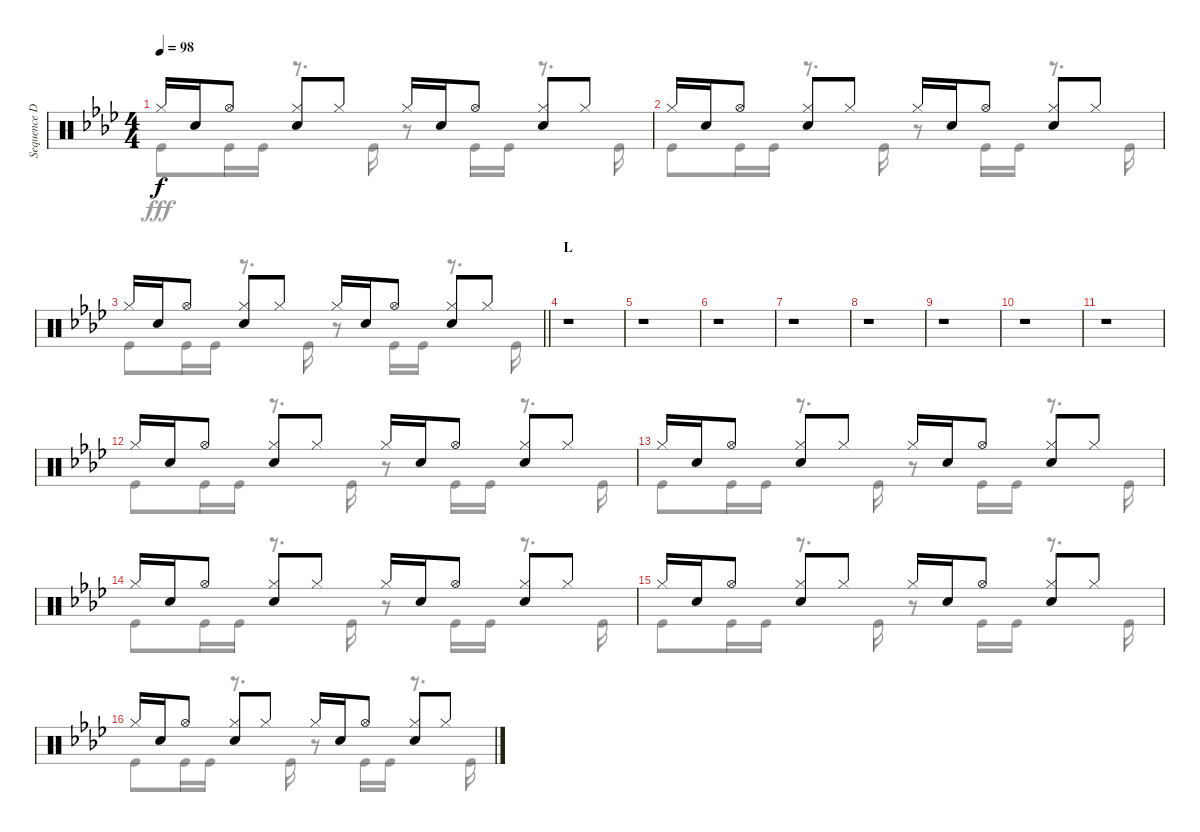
\track ("Sequence Drums II" "Sequence D") {instrument percussion}
\staff {score}
\articulation defaults
\voice
\ts (4 4)
\tempo 98
\clef neutral
\ks ab "Hi-Hat (closed)".16{dy f} "Snare (hit) 2".16 "Hi-Hat (open)".8
("Hi-Hat (closed)" "Snare (hit) 2").8 "Hi-Hat (closed)".8 "Hi-Hat (closed)".16 "Snare (hit) 2".16 "Hi-Hat (open)".8 ("Hi-Hat (closed)" "Snare (hit) 2").8 "Hi-Hat (closed)".8 |
"Hi-Hat (closed)".16 "Snare (hit) 2".16 "Hi-Hat (open)".8 ("Hi-Hat (closed)" "Snare (hit) 2").8 "Hi-Hat (closed)".8 "Hi-Hat (closed)".16 "Snare (hit) 2".16 "Hi-Hat (open)".8 ("Hi-Hat (closed)" "Snare (hit) 2").8 "Hi-Hat (closed)".8 |
\barLineRight lightlight "Hi-Hat (closed)".16 "Snare (hit) 2".16 "Hi-Hat (open)".8
("Hi-Hat (closed)" "Snare (hit) 2").8 "Hi-Hat (closed)".8 "Hi-Hat (closed)".16 "Snare (hit) 2".16 "Hi-Hat (open)".8 ("Hi-Hat (closed)" "Snare (hit) 2").8 "Hi-Hat (closed)".8 |
\section ("" "L")
r.1 |
r.1 |
r.1 |
r.1 |
r.1 |
r.1 |
r.1 |
r.1 |
"Hi-Hat (closed)".16 "Snare (hit) 2".16 "Hi-Hat (open)".8 ("Hi-Hat (closed)" "Snare (hit) 2").8 "Hi-Hat (closed)".8 "Hi-Hat (closed)".16 "Snare (hit) 2".16 "Hi-Hat (open)".8 ("Hi-Hat (closed)" "Snare (hit) 2").8 "Hi-Hat (closed)".8 |
"Hi-Hat (closed)".16 "Snare (hit) 2".16 "Hi-Hat (open)".8 ("Hi-Hat (closed)" "Snare (hit) 2").8 "Hi-Hat (closed)".8 "Hi-Hat (closed)".16 "Snare (hit) 2".16 "Hi-Hat (open)".8 ("Hi-Hat (closed)" "Snare (hit) 2").8 "Hi-Hat (closed)".8 |
"Hi-Hat (closed)".16 "Snare (hit) 2".16 "Hi-Hat (open)".8 ("Hi-Hat (closed)" "Snare (hit) 2").8 "Hi-Hat (closed)".8 "Hi-Hat (closed)".16 "Snare (hit) 2".16 "Hi-Hat (open)".8 ("Hi-Hat (closed)" "Snare (hit) 2").8 "Hi-Hat (closed)".8 |
"Hi-Hat (closed)".16 "Snare (hit) 2".16 "Hi-Hat (open)".8 ("Hi-Hat (closed)" "Snare (hit) 2").8 "Hi-Hat (closed)".8 "Hi-Hat (closed)".16 "Snare (hit) 2".16 "Hi-Hat (open)".8 ("Hi-Hat (closed)" "Snare (hit) 2").8 "Hi-Hat (closed)".8 |
"Hi-Hat (closed)".16 "Snare (hit) 2".16 "Hi-Hat (open)".8 ("Hi-Hat (closed)" "Snare (hit) 2").8 "Hi-Hat (closed)".8 "Hi-Hat (closed)".16 "Snare (hit) 2".16 "Hi-Hat (open)".8 ("Hi-Hat (closed)" "Snare (hit) 2").8 "Hi-Hat (closed)".8
\voice
\clef neutral
\ottava regular
\simile none
\ks ab "Kick (hit)".8{dy fff} "Kick (hit)".16 "Kick (hit)".16
r.8{d} "Kick (hit)".16 r.8 "Kick (hit)".16 "Kick (hit)".16 r.8{d} "Kick (hit)".16 |
"Kick (hit)".8 "Kick (hit)".16 "Kick (hit)".16 r.8{d} "Kick (hit)".16 r.8 "Kick (hit)".16 "Kick (hit)".16 r.8{d} "Kick (hit)".16 |
\barLineRight lightlight "Kick (hit)".8 "Kick (hit)".16 "Kick (hit)".16
r.8{d} "Kick (hit)".16 r.8 "Kick (hit)".16 "Kick (hit)".16 r.8{d} "Kick (hit)".16 |
r.1 |
r.1 |
r.1 |
r.1 |
r.1 |
r.1 |
r.1 |
r.1 |
"Kick (hit)".8 "Kick (hit)".16 "Kick (hit)".16 r.8{d} "Kick (hit)".16 r.8 "Kick (hit)".16 "Kick (hit)".16 r.8{d} "Kick (hit)".16 |
"Kick (hit)".8 "Kick (hit)".16 "Kick (hit)".16 r.8{d} "Kick (hit)".16 r.8 "Kick (hit)".16 "Kick (hit)".16 r.8{d} "Kick (hit)".16 |
"Kick (hit)".8 "Kick (hit)".16 "Kick (hit)".16 r.8{d} "Kick (hit)".16 r.8 "Kick (hit)".16 "Kick (hit)".16 r.8{d} "Kick (hit)".16 |
"Kick (hit)".8 "Kick (hit)".16 "Kick (hit)".16 r.8{d} "Kick (hit)".16 r.8 "Kick (hit)".16 "Kick (hit)".16 r.8{d} "Kick (hit)".16 |
"Kick (hit)".8 "Kick (hit)".16 "Kick (hit)".16 r.8{d} "Kick (hit)".16 r.8 "Kick (hit)".16 "Kick (hit)".16 r.8{d} "Kick (hit)".16
